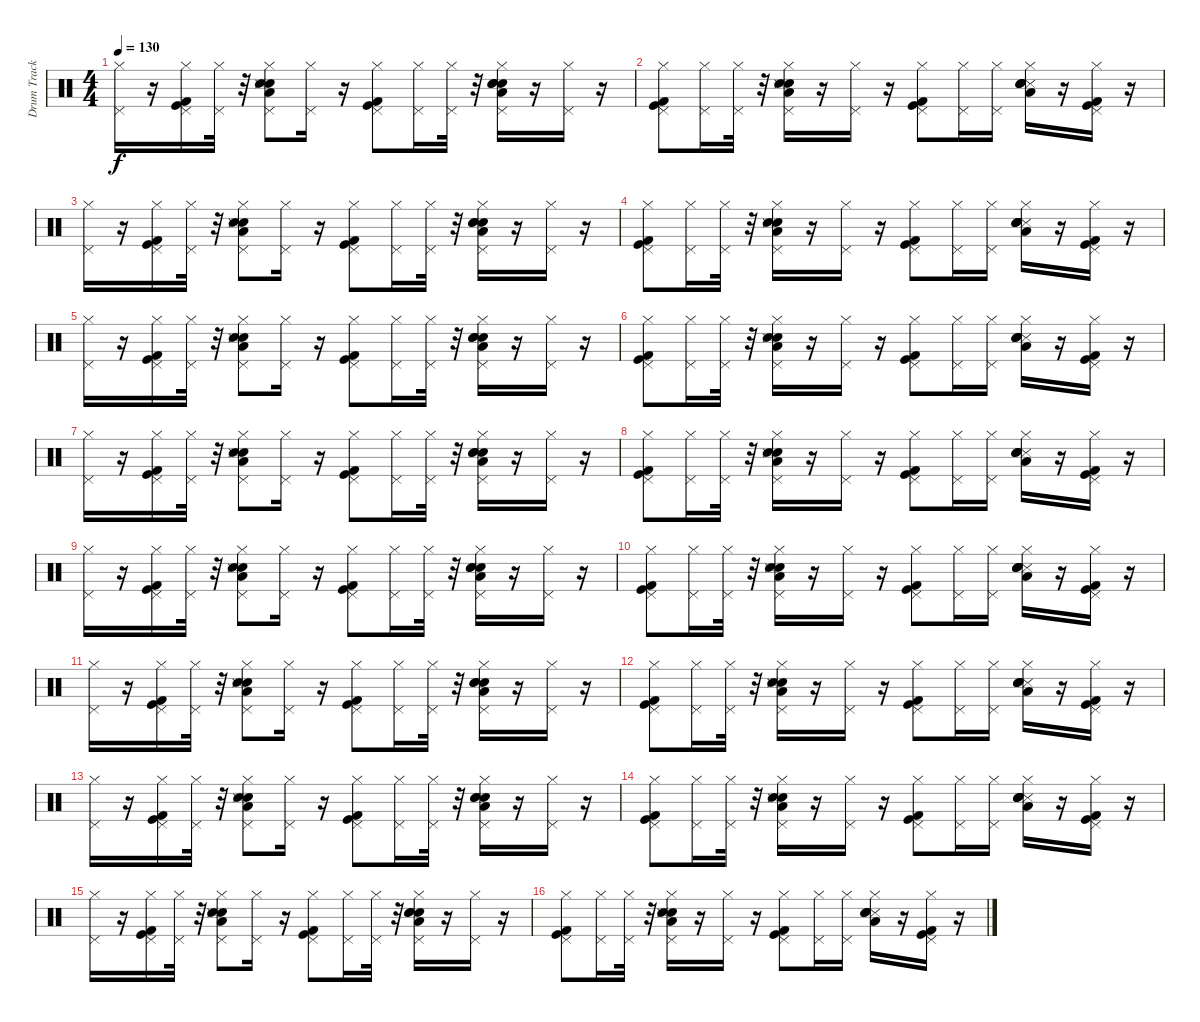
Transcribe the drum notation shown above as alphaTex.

\track ("Drum Track" "Drum Track") {instrument percussion}
\staff {score}
\articulation defaults
\ts (4 4)
\tempo 130
\clef neutral
\ks c
("Pedal Hi-Hat (hit)" "Hi-Hat (closed)").16{dy f} r.16 ("Kick (hit) 2" "Kick (hit)" "Pedal Hi-Hat (hit)" "Hi-Hat (closed)").16 ("Pedal Hi-Hat (hit)" "Hi-Hat (closed)").32 r.32 ("Hi-Hat (closed)" "Pedal Hi-Hat (hit)" "Low Floor Tom (hit)" "Electric Snare (hit)" "Snare (hit) 2" "Snare (side stick) 3").8 ("Hi-Hat (closed)" "Pedal Hi-Hat (hit)").16 r.16 ("Hi-Hat (closed)" "Pedal Hi-Hat (hit)" "Kick (hit) 2" "Kick (hit)").8 ("Hi-Hat (closed)" "Pedal Hi-Hat (hit)").16 ("Pedal Hi-Hat (hit)" "Hi-Hat (closed)").32 r.32 ("Hi-Hat (closed)" "Pedal Hi-Hat (hit)" "Low Floor Tom (hit)" "Electric Snare (hit)" "Electric Snare (hit)" "Snare (hit) 2").16 r.16 ("Hi-Hat (closed)" "Pedal Hi-Hat (hit)").16 r.16 |
("Kick (hit) 2" "Kick (hit)" "Hi-Hat (closed)" "Pedal Hi-Hat (hit)").8 ("Hi-Hat (closed)" "Pedal Hi-Hat (hit)").16 ("Hi-Hat (closed)" "Pedal Hi-Hat (hit)").32 r.32 ("Electric Snare (hit)" "Snare (hit) 2" "Snare (side stick) 3" "Hi-Hat (closed)" "Pedal Hi-Hat (hit)" "Low Floor Tom (hit)").16 r.16 ("Hi-Hat (closed)" "Pedal Hi-Hat (hit)").16 r.16 ("Kick (hit) 2" "Kick (hit)" "Hi-Hat (closed)" "Pedal Hi-Hat (hit)").8 ("Hi-Hat (closed)" "Pedal Hi-Hat (hit)").16 ("Pedal Hi-Hat (hit)" "Hi-Hat (closed)").16 ("Snare (side stick) 3" "Snare (hit) 2" "Electric Snare (hit)" "Electric Snare (hit)" "Low Floor Tom (hit)" "Hi-Hat (closed)").16 r.16 ("Kick (hit) 2" "Kick (hit)" "Hi-Hat (closed)" "Pedal Hi-Hat (hit)").16 r.16 |
("Pedal Hi-Hat (hit)" "Hi-Hat (closed)").16 r.16 ("Kick (hit) 2" "Kick (hit)" "Pedal Hi-Hat (hit)" "Hi-Hat (closed)").16 ("Pedal Hi-Hat (hit)" "Hi-Hat (closed)").32 r.32 ("Hi-Hat (closed)" "Pedal Hi-Hat (hit)" "Low Floor Tom (hit)" "Electric Snare (hit)" "Snare (hit) 2" "Snare (side stick) 3").8 ("Hi-Hat (closed)" "Pedal Hi-Hat (hit)").16 r.16 ("Hi-Hat (closed)" "Pedal Hi-Hat (hit)" "Kick (hit) 2" "Kick (hit)").8 ("Hi-Hat (closed)" "Pedal Hi-Hat (hit)").16 ("Pedal Hi-Hat (hit)" "Hi-Hat (closed)").32 r.32 ("Hi-Hat (closed)" "Pedal Hi-Hat (hit)" "Low Floor Tom (hit)" "Electric Snare (hit)" "Electric Snare (hit)" "Snare (hit) 2").16 r.16 ("Hi-Hat (closed)" "Pedal Hi-Hat (hit)").16 r.16 |
("Kick (hit) 2" "Kick (hit)" "Hi-Hat (closed)" "Pedal Hi-Hat (hit)").8 ("Hi-Hat (closed)" "Pedal Hi-Hat (hit)").16 ("Hi-Hat (closed)" "Pedal Hi-Hat (hit)").32 r.32 ("Electric Snare (hit)" "Snare (hit) 2" "Snare (side stick) 3" "Hi-Hat (closed)" "Pedal Hi-Hat (hit)" "Low Floor Tom (hit)").16 r.16 ("Hi-Hat (closed)" "Pedal Hi-Hat (hit)").16 r.16 ("Kick (hit) 2" "Kick (hit)" "Hi-Hat (closed)" "Pedal Hi-Hat (hit)").8 ("Hi-Hat (closed)" "Pedal Hi-Hat (hit)").16 ("Pedal Hi-Hat (hit)" "Hi-Hat (closed)").16 ("Snare (side stick) 3" "Snare (hit) 2" "Electric Snare (hit)" "Electric Snare (hit)" "Low Floor Tom (hit)" "Hi-Hat (closed)").16 r.16 ("Kick (hit) 2" "Kick (hit)" "Hi-Hat (closed)" "Pedal Hi-Hat (hit)").16 r.16 |
("Pedal Hi-Hat (hit)" "Hi-Hat (closed)").16 r.16 ("Kick (hit) 2" "Kick (hit)" "Pedal Hi-Hat (hit)" "Hi-Hat (closed)").16 ("Pedal Hi-Hat (hit)" "Hi-Hat (closed)").32 r.32 ("Hi-Hat (closed)" "Pedal Hi-Hat (hit)" "Low Floor Tom (hit)" "Electric Snare (hit)" "Snare (hit) 2" "Snare (side stick) 3").8 ("Hi-Hat (closed)" "Pedal Hi-Hat (hit)").16 r.16 ("Hi-Hat (closed)" "Pedal Hi-Hat (hit)" "Kick (hit) 2" "Kick (hit)").8 ("Hi-Hat (closed)" "Pedal Hi-Hat (hit)").16 ("Pedal Hi-Hat (hit)" "Hi-Hat (closed)").32 r.32 ("Hi-Hat (closed)" "Pedal Hi-Hat (hit)" "Low Floor Tom (hit)" "Electric Snare (hit)" "Electric Snare (hit)" "Snare (hit) 2").16 r.16 ("Hi-Hat (closed)" "Pedal Hi-Hat (hit)").16 r.16 |
("Kick (hit) 2" "Kick (hit)" "Hi-Hat (closed)" "Pedal Hi-Hat (hit)").8 ("Hi-Hat (closed)" "Pedal Hi-Hat (hit)").16 ("Hi-Hat (closed)" "Pedal Hi-Hat (hit)").32 r.32 ("Electric Snare (hit)" "Snare (hit) 2" "Snare (side stick) 3" "Hi-Hat (closed)" "Pedal Hi-Hat (hit)" "Low Floor Tom (hit)").16 r.16 ("Hi-Hat (closed)" "Pedal Hi-Hat (hit)").16 r.16 ("Kick (hit) 2" "Kick (hit)" "Hi-Hat (closed)" "Pedal Hi-Hat (hit)").8 ("Hi-Hat (closed)" "Pedal Hi-Hat (hit)").16 ("Pedal Hi-Hat (hit)" "Hi-Hat (closed)").16 ("Snare (side stick) 3" "Snare (hit) 2" "Electric Snare (hit)" "Electric Snare (hit)" "Low Floor Tom (hit)" "Hi-Hat (closed)").16 r.16 ("Kick (hit) 2" "Kick (hit)" "Hi-Hat (closed)" "Pedal Hi-Hat (hit)").16 r.16 |
("Pedal Hi-Hat (hit)" "Hi-Hat (closed)").16 r.16 ("Kick (hit) 2" "Kick (hit)" "Pedal Hi-Hat (hit)" "Hi-Hat (closed)").16 ("Pedal Hi-Hat (hit)" "Hi-Hat (closed)").32 r.32 ("Hi-Hat (closed)" "Pedal Hi-Hat (hit)" "Low Floor Tom (hit)" "Electric Snare (hit)" "Snare (hit) 2" "Snare (side stick) 3").8 ("Hi-Hat (closed)" "Pedal Hi-Hat (hit)").16 r.16 ("Hi-Hat (closed)" "Pedal Hi-Hat (hit)" "Kick (hit) 2" "Kick (hit)").8 ("Hi-Hat (closed)" "Pedal Hi-Hat (hit)").16 ("Pedal Hi-Hat (hit)" "Hi-Hat (closed)").32 r.32 ("Hi-Hat (closed)" "Pedal Hi-Hat (hit)" "Low Floor Tom (hit)" "Electric Snare (hit)" "Electric Snare (hit)" "Snare (hit) 2").16 r.16 ("Hi-Hat (closed)" "Pedal Hi-Hat (hit)").16 r.16 |
("Kick (hit) 2" "Kick (hit)" "Hi-Hat (closed)" "Pedal Hi-Hat (hit)").8 ("Hi-Hat (closed)" "Pedal Hi-Hat (hit)").16 ("Hi-Hat (closed)" "Pedal Hi-Hat (hit)").32 r.32 ("Electric Snare (hit)" "Snare (hit) 2" "Snare (side stick) 3" "Hi-Hat (closed)" "Pedal Hi-Hat (hit)" "Low Floor Tom (hit)").16 r.16 ("Hi-Hat (closed)" "Pedal Hi-Hat (hit)").16 r.16 ("Kick (hit) 2" "Kick (hit)" "Hi-Hat (closed)" "Pedal Hi-Hat (hit)").8 ("Hi-Hat (closed)" "Pedal Hi-Hat (hit)").16 ("Pedal Hi-Hat (hit)" "Hi-Hat (closed)").16 ("Snare (side stick) 3" "Snare (hit) 2" "Electric Snare (hit)" "Electric Snare (hit)" "Low Floor Tom (hit)" "Hi-Hat (closed)").16 r.16 ("Kick (hit) 2" "Kick (hit)" "Hi-Hat (closed)" "Pedal Hi-Hat (hit)").16 r.16 |
("Pedal Hi-Hat (hit)" "Hi-Hat (closed)").16 r.16 ("Kick (hit) 2" "Kick (hit)" "Pedal Hi-Hat (hit)" "Hi-Hat (closed)").16 ("Pedal Hi-Hat (hit)" "Hi-Hat (closed)").32 r.32 ("Hi-Hat (closed)" "Pedal Hi-Hat (hit)" "Low Floor Tom (hit)" "Electric Snare (hit)" "Snare (hit) 2" "Snare (side stick) 3").8 ("Hi-Hat (closed)" "Pedal Hi-Hat (hit)").16 r.16 ("Hi-Hat (closed)" "Pedal Hi-Hat (hit)" "Kick (hit) 2" "Kick (hit)").8 ("Hi-Hat (closed)" "Pedal Hi-Hat (hit)").16 ("Pedal Hi-Hat (hit)" "Hi-Hat (closed)").32 r.32 ("Hi-Hat (closed)" "Pedal Hi-Hat (hit)" "Low Floor Tom (hit)" "Electric Snare (hit)" "Electric Snare (hit)" "Snare (hit) 2").16 r.16 ("Hi-Hat (closed)" "Pedal Hi-Hat (hit)").16 r.16 |
("Kick (hit) 2" "Kick (hit)" "Hi-Hat (closed)" "Pedal Hi-Hat (hit)").8 ("Hi-Hat (closed)" "Pedal Hi-Hat (hit)").16 ("Hi-Hat (closed)" "Pedal Hi-Hat (hit)").32 r.32 ("Electric Snare (hit)" "Snare (hit) 2" "Snare (side stick) 3" "Hi-Hat (closed)" "Pedal Hi-Hat (hit)" "Low Floor Tom (hit)").16 r.16 ("Hi-Hat (closed)" "Pedal Hi-Hat (hit)").16 r.16 ("Kick (hit) 2" "Kick (hit)" "Hi-Hat (closed)" "Pedal Hi-Hat (hit)").8 ("Hi-Hat (closed)" "Pedal Hi-Hat (hit)").16 ("Pedal Hi-Hat (hit)" "Hi-Hat (closed)").16 ("Snare (side stick) 3" "Snare (hit) 2" "Electric Snare (hit)" "Electric Snare (hit)" "Low Floor Tom (hit)" "Hi-Hat (closed)").16 r.16 ("Kick (hit) 2" "Kick (hit)" "Hi-Hat (closed)" "Pedal Hi-Hat (hit)").16 r.16 |
("Pedal Hi-Hat (hit)" "Hi-Hat (closed)").16 r.16 ("Kick (hit) 2" "Kick (hit)" "Pedal Hi-Hat (hit)" "Hi-Hat (closed)").16 ("Pedal Hi-Hat (hit)" "Hi-Hat (closed)").32 r.32 ("Hi-Hat (closed)" "Pedal Hi-Hat (hit)" "Low Floor Tom (hit)" "Electric Snare (hit)" "Snare (hit) 2" "Snare (side stick) 3").8 ("Hi-Hat (closed)" "Pedal Hi-Hat (hit)").16 r.16 ("Hi-Hat (closed)" "Pedal Hi-Hat (hit)" "Kick (hit) 2" "Kick (hit)").8 ("Hi-Hat (closed)" "Pedal Hi-Hat (hit)").16 ("Pedal Hi-Hat (hit)" "Hi-Hat (closed)").32 r.32 ("Hi-Hat (closed)" "Pedal Hi-Hat (hit)" "Low Floor Tom (hit)" "Electric Snare (hit)" "Electric Snare (hit)" "Snare (hit) 2").16 r.16 ("Hi-Hat (closed)" "Pedal Hi-Hat (hit)").16 r.16 |
("Kick (hit) 2" "Kick (hit)" "Hi-Hat (closed)" "Pedal Hi-Hat (hit)").8 ("Hi-Hat (closed)" "Pedal Hi-Hat (hit)").16 ("Hi-Hat (closed)" "Pedal Hi-Hat (hit)").32 r.32 ("Electric Snare (hit)" "Snare (hit) 2" "Snare (side stick) 3" "Hi-Hat (closed)" "Pedal Hi-Hat (hit)" "Low Floor Tom (hit)").16 r.16 ("Hi-Hat (closed)" "Pedal Hi-Hat (hit)").16 r.16 ("Kick (hit) 2" "Kick (hit)" "Hi-Hat (closed)" "Pedal Hi-Hat (hit)").8 ("Hi-Hat (closed)" "Pedal Hi-Hat (hit)").16 ("Pedal Hi-Hat (hit)" "Hi-Hat (closed)").16 ("Snare (side stick) 3" "Snare (hit) 2" "Electric Snare (hit)" "Electric Snare (hit)" "Low Floor Tom (hit)" "Hi-Hat (closed)").16 r.16 ("Kick (hit) 2" "Kick (hit)" "Hi-Hat (closed)" "Pedal Hi-Hat (hit)").16 r.16 |
("Pedal Hi-Hat (hit)" "Hi-Hat (closed)").16 r.16 ("Kick (hit) 2" "Kick (hit)" "Pedal Hi-Hat (hit)" "Hi-Hat (closed)").16 ("Pedal Hi-Hat (hit)" "Hi-Hat (closed)").32 r.32 ("Hi-Hat (closed)" "Pedal Hi-Hat (hit)" "Low Floor Tom (hit)" "Electric Snare (hit)" "Snare (hit) 2" "Snare (side stick) 3").8 ("Hi-Hat (closed)" "Pedal Hi-Hat (hit)").16 r.16 ("Hi-Hat (closed)" "Pedal Hi-Hat (hit)" "Kick (hit) 2" "Kick (hit)").8 ("Hi-Hat (closed)" "Pedal Hi-Hat (hit)").16 ("Pedal Hi-Hat (hit)" "Hi-Hat (closed)").32 r.32 ("Hi-Hat (closed)" "Pedal Hi-Hat (hit)" "Low Floor Tom (hit)" "Electric Snare (hit)" "Electric Snare (hit)" "Snare (hit) 2").16 r.16 ("Hi-Hat (closed)" "Pedal Hi-Hat (hit)").16 r.16 |
("Kick (hit) 2" "Kick (hit)" "Hi-Hat (closed)" "Pedal Hi-Hat (hit)").8 ("Hi-Hat (closed)" "Pedal Hi-Hat (hit)").16 ("Hi-Hat (closed)" "Pedal Hi-Hat (hit)").32 r.32 ("Electric Snare (hit)" "Snare (hit) 2" "Snare (side stick) 3" "Hi-Hat (closed)" "Pedal Hi-Hat (hit)" "Low Floor Tom (hit)").16 r.16 ("Hi-Hat (closed)" "Pedal Hi-Hat (hit)").16 r.16 ("Kick (hit) 2" "Kick (hit)" "Hi-Hat (closed)" "Pedal Hi-Hat (hit)").8 ("Hi-Hat (closed)" "Pedal Hi-Hat (hit)").16 ("Pedal Hi-Hat (hit)" "Hi-Hat (closed)").16 ("Snare (side stick) 3" "Snare (hit) 2" "Electric Snare (hit)" "Electric Snare (hit)" "Low Floor Tom (hit)" "Hi-Hat (closed)").16 r.16 ("Kick (hit) 2" "Kick (hit)" "Hi-Hat (closed)" "Pedal Hi-Hat (hit)").16 r.16 |
("Pedal Hi-Hat (hit)" "Hi-Hat (closed)").16 r.16 ("Kick (hit) 2" "Kick (hit)" "Pedal Hi-Hat (hit)" "Hi-Hat (closed)").16 ("Pedal Hi-Hat (hit)" "Hi-Hat (closed)").32 r.32 ("Hi-Hat (closed)" "Pedal Hi-Hat (hit)" "Low Floor Tom (hit)" "Electric Snare (hit)" "Snare (hit) 2" "Snare (side stick) 3").8 ("Hi-Hat (closed)" "Pedal Hi-Hat (hit)").16 r.16 ("Hi-Hat (closed)" "Pedal Hi-Hat (hit)" "Kick (hit) 2" "Kick (hit)").8 ("Hi-Hat (closed)" "Pedal Hi-Hat (hit)").16 ("Pedal Hi-Hat (hit)" "Hi-Hat (closed)").32 r.32 ("Hi-Hat (closed)" "Pedal Hi-Hat (hit)" "Low Floor Tom (hit)" "Electric Snare (hit)" "Electric Snare (hit)" "Snare (hit) 2").16 r.16 ("Hi-Hat (closed)" "Pedal Hi-Hat (hit)").16 r.16 |
("Kick (hit) 2" "Kick (hit)" "Hi-Hat (closed)" "Pedal Hi-Hat (hit)").8 ("Hi-Hat (closed)" "Pedal Hi-Hat (hit)").16 ("Hi-Hat (closed)" "Pedal Hi-Hat (hit)").32 r.32 ("Electric Snare (hit)" "Snare (hit) 2" "Snare (side stick) 3" "Hi-Hat (closed)" "Pedal Hi-Hat (hit)" "Low Floor Tom (hit)").16 r.16 ("Hi-Hat (closed)" "Pedal Hi-Hat (hit)").16 r.16 ("Kick (hit) 2" "Kick (hit)" "Hi-Hat (closed)" "Pedal Hi-Hat (hit)").8 ("Hi-Hat (closed)" "Pedal Hi-Hat (hit)").16 ("Pedal Hi-Hat (hit)" "Hi-Hat (closed)").16 ("Snare (side stick) 3" "Snare (hit) 2" "Electric Snare (hit)" "Electric Snare (hit)" "Low Floor Tom (hit)" "Hi-Hat (closed)").16 r.16 ("Kick (hit) 2" "Kick (hit)" "Hi-Hat (closed)" "Pedal Hi-Hat (hit)").16 r.16
